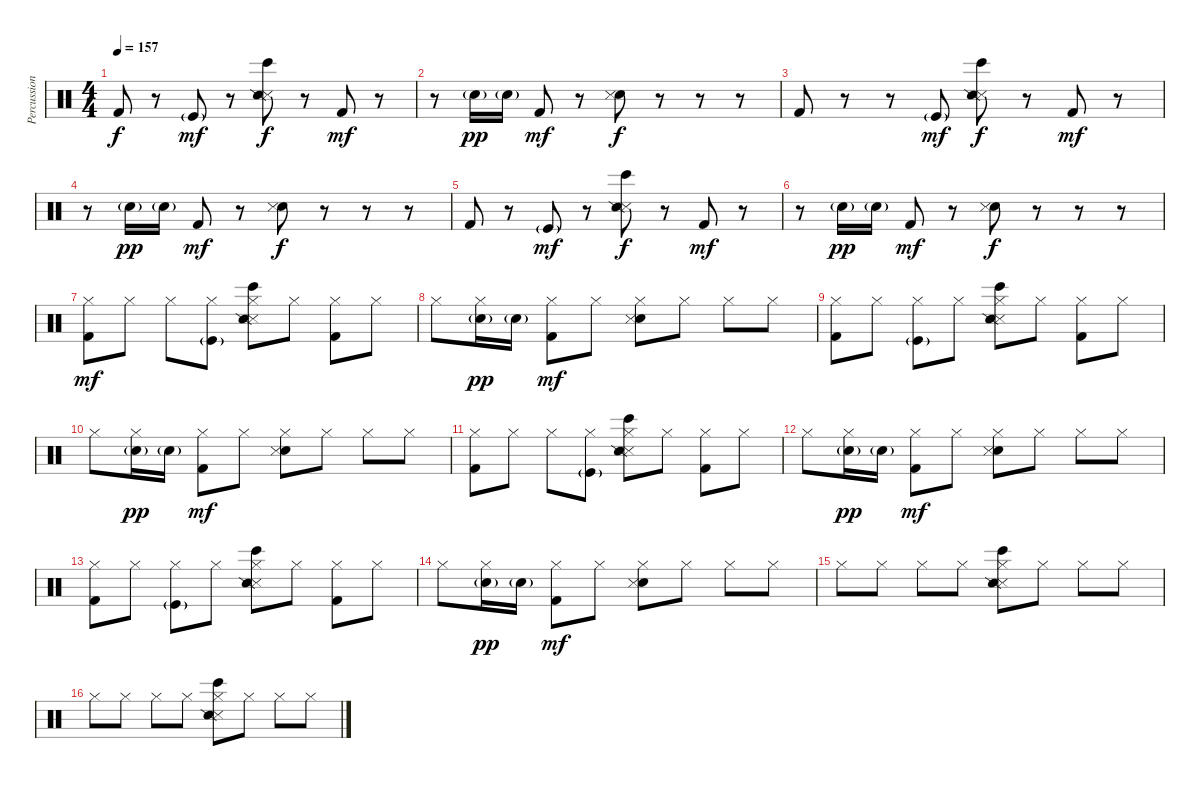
\track ("Percussions" "Percussion") {instrument percussion}
\staff {score}
\articulation defaults
\ts (4 4)
\tempo 157
\clef neutral
\ks c "Kick (hit) 2".8{dy f}
r.8 "Kick (hit)"{g}.8{dy mf} r.8 ("Bongo High (hit)" "Metronome (hit)" "Snare (side stick) 2").8{dy f} r.8 "Kick (hit) 2".8{dy mf} r.8 |
r.8 "Electric Snare (hit)"{g}.16{dy pp} "Electric Snare (hit)"{g}.16 "Kick (hit) 2".8{dy mf} r.8 ("Snare (hit) 2" "Snare (side stick) 3").8{dy f} r.8 r.8 r.8 |
"Kick (hit) 2".8 r.8 r.8 "Kick (hit)"{g}.8{dy mf} ("Bongo High (hit)" "Metronome (hit)" "Snare (side stick) 2").8{dy f} r.8 "Kick (hit) 2".8{dy mf} r.8 |
r.8 "Electric Snare (hit)"{g}.16{dy pp} "Electric Snare (hit)"{g}.16 "Kick (hit) 2".8{dy mf} r.8 ("Snare (hit) 2" "Snare (side stick) 3").8{dy f} r.8 r.8 r.8 |
"Kick (hit) 2".8 r.8 "Kick (hit)"{g}.8{dy mf} r.8 ("Bongo High (hit)" "Metronome (hit)" "Snare (side stick) 2").8{dy f} r.8 "Kick (hit) 2".8{dy mf} r.8 |
r.8 "Electric Snare (hit)"{g}.16{dy pp} "Electric Snare (hit)"{g}.16 "Kick (hit) 2".8{dy mf} r.8 ("Snare (hit) 2" "Snare (side stick) 3").8{dy f} r.8 r.8 r.8 |
("Hi-Hat (closed)" "Kick (hit) 2").8{dy mf} "Hi-Hat (closed)".8 "Hi-Hat (closed)".8 ("Hi-Hat (closed)" "Kick (hit)"{g}).8 ("Hi-Hat (closed)" "Bongo High (hit)" "Metronome (hit)" "Snare (side stick) 2").8 "Hi-Hat (closed)".8 ("Hi-Hat (closed)" "Kick (hit) 2").8 "Hi-Hat (closed)".8 |
"Hi-Hat (closed)".8 ("Hi-Hat (closed)" "Electric Snare (hit)"{g}).16{dy pp} "Electric Snare (hit)"{g}.16 ("Hi-Hat (closed)" "Kick (hit) 2").8{dy mf} "Hi-Hat (closed)".8 ("Hi-Hat (closed)" "Snare (hit) 2" "Snare (side stick) 3").8 "Hi-Hat (closed)".8 "Hi-Hat (closed)".8 "Hi-Hat (closed)".8 |
("Hi-Hat (closed)" "Kick (hit) 2").8 "Hi-Hat (closed)".8 ("Hi-Hat (closed)" "Kick (hit)"{g}).8 "Hi-Hat (closed)".8 ("Hi-Hat (closed)" "Bongo High (hit)" "Metronome (hit)" "Snare (side stick) 2").8 "Hi-Hat (closed)".8 ("Hi-Hat (closed)" "Kick (hit) 2").8 "Hi-Hat (closed)".8 |
"Hi-Hat (closed)".8 ("Hi-Hat (closed)" "Electric Snare (hit)"{g}).16{dy pp} "Electric Snare (hit)"{g}.16 ("Hi-Hat (closed)" "Kick (hit) 2").8{dy mf} "Hi-Hat (closed)".8 ("Hi-Hat (closed)" "Snare (hit) 2" "Snare (side stick) 3").8 "Hi-Hat (closed)".8 "Hi-Hat (closed)".8 "Hi-Hat (closed)".8 |
("Hi-Hat (closed)" "Kick (hit) 2").8 "Hi-Hat (closed)".8 "Hi-Hat (closed)".8 ("Hi-Hat (closed)" "Kick (hit)"{g}).8 ("Hi-Hat (closed)" "Bongo High (hit)" "Metronome (hit)" "Snare (side stick) 2").8 "Hi-Hat (closed)".8 ("Hi-Hat (closed)" "Kick (hit) 2").8 "Hi-Hat (closed)".8 |
"Hi-Hat (closed)".8 ("Hi-Hat (closed)" "Electric Snare (hit)"{g}).16{dy pp} "Electric Snare (hit)"{g}.16 ("Hi-Hat (closed)" "Kick (hit) 2").8{dy mf} "Hi-Hat (closed)".8 ("Hi-Hat (closed)" "Snare (hit) 2" "Snare (side stick) 3").8 "Hi-Hat (closed)".8 "Hi-Hat (closed)".8 "Hi-Hat (closed)".8 |
("Hi-Hat (closed)" "Kick (hit) 2").8 "Hi-Hat (closed)".8 ("Hi-Hat (closed)" "Kick (hit)"{g}).8 "Hi-Hat (closed)".8 ("Hi-Hat (closed)" "Bongo High (hit)" "Metronome (hit)" "Snare (side stick) 2").8 "Hi-Hat (closed)".8 ("Hi-Hat (closed)" "Kick (hit) 2").8 "Hi-Hat (closed)".8 |
"Hi-Hat (closed)".8 ("Hi-Hat (closed)" "Electric Snare (hit)"{g}).16{dy pp} "Electric Snare (hit)"{g}.16 ("Hi-Hat (closed)" "Kick (hit) 2").8{dy mf} "Hi-Hat (closed)".8 ("Hi-Hat (closed)" "Snare (hit) 2" "Snare (side stick) 3").8 "Hi-Hat (closed)".8 "Hi-Hat (closed)".8 "Hi-Hat (closed)".8 |
"Hi-Hat (closed)".8 "Hi-Hat (closed)".8 "Hi-Hat (closed)".8 "Hi-Hat (closed)".8 ("Hi-Hat (closed)" "Bongo High (hit)" "Metronome (hit)" "Snare (side stick) 2").8 "Hi-Hat (closed)".8 "Hi-Hat (closed)".8 "Hi-Hat (closed)".8 |
"Hi-Hat (closed)".8 "Hi-Hat (closed)".8 "Hi-Hat (closed)".8 "Hi-Hat (closed)".8 ("Hi-Hat (closed)" "Bongo High (hit)" "Metronome (hit)" "Snare (side stick) 2").8 "Hi-Hat (closed)".8 "Hi-Hat (closed)".8 "Hi-Hat (closed)".8
